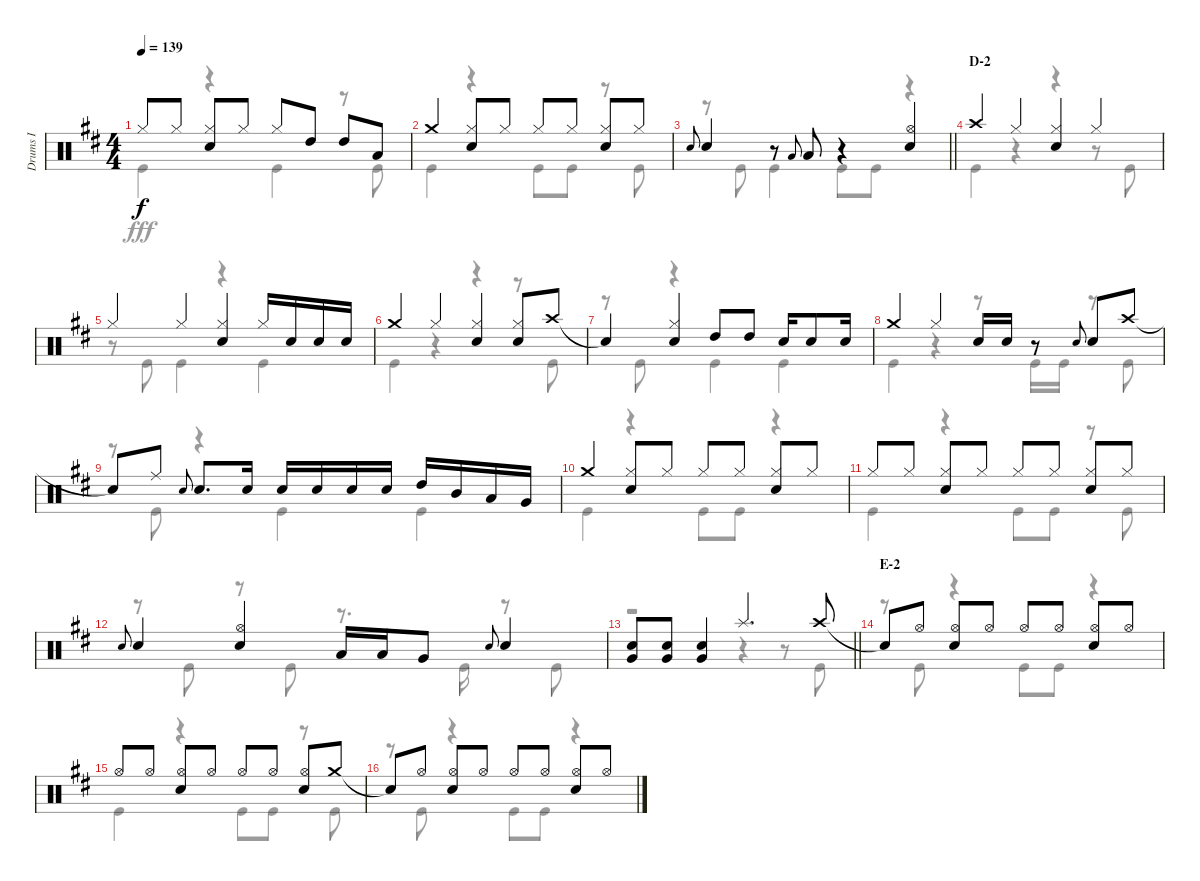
\track ("Drums I" "Drums I") {instrument percussion}
\staff {score}
\articulation defaults
\voice
\ts (4 4)
\tempo 139
\clef neutral
\ks d "Hi-Hat (closed)".8{dy f} "Hi-Hat (closed)".8
("Hi-Hat (closed)" "Snare (hit) 2").8 "Hi-Hat (closed)".8 "Hi-Hat (closed)".8 "High Tom (hit)".8 "High Tom (hit)".8 "Low Tom (hit)".8 |
"Crash medium (hit)".4 ("Hi-Hat (closed)" "Snare (hit) 2").8 "Hi-Hat (closed)".8 "Hi-Hat (closed)".8 "Hi-Hat (closed)".8 ("Hi-Hat (closed)" "Snare (hit) 2").8 "Hi-Hat (closed)".8 |
\barLineRight lightlight "Snare (hit) 2".8{gr onbeat} "Snare (hit) 2".4
r.8 "Low Tom (hit)".8{gr onbeat} "Low Tom (hit)".8 r.4 ("Hi-Hat (open)" "Snare (hit) 2").4 |
\section ("" "D-2")
"Crash high (hit)".4 "Hi-Hat (closed)".4 ("Hi-Hat (closed)" "Snare (hit) 2").4 "Hi-Hat (closed)".4 |
"Hi-Hat (closed)".4 "Hi-Hat (closed)".4 ("Hi-Hat (closed)" "Snare (hit) 2").4 "Hi-Hat (closed)".16 "Snare (hit) 2".16 "Snare (hit) 2".16 "Snare (hit) 2".16 |
"Crash medium (hit)".4 "Hi-Hat (closed)".4 ("Hi-Hat (closed)" "Snare (hit) 2").4 ("Hi-Hat (closed)" "Snare (hit) 2").8 "Crash high (hit)".8 |
"Snare (hit)"{t}.4 ("Hi-Hat (closed)" "Snare (hit) 2").4 "High Tom (hit)".8 "High Tom (hit)".8 "Snare (hit) 2".16 "Snare (hit) 2".8 "Snare (hit) 2".16 |
"Crash medium (hit)".4 "Hi-Hat (closed)".4 "Snare (hit) 2".16 "Snare (hit) 2".16 r.8 "Snare (hit) 2".8{gr onbeat} "Snare (hit) 2".8 "Crash high (hit)".8 |
"Snare (hit)"{t}.8 "Ride (middle)".8 "Snare (hit) 2".8{gr onbeat} "Snare (hit) 2".8{d} "Snare (hit) 2".16 "Snare (hit) 2".16 "Snare (hit) 2".16 "Snare (hit) 2".16 "Snare (hit) 2".16 "High Tom (hit)".16 "Mid Tom (hit)".16 "Low Tom (hit)".16 "Very Low Tom (hit)".16 |
"Crash medium (hit)".4 ("Hi-Hat (closed)" "Snare (hit) 2").8 "Hi-Hat (closed)".8 "Hi-Hat (closed)".8 "Hi-Hat (closed)".8 ("Hi-Hat (closed)" "Snare (hit) 2").8 "Hi-Hat (closed)".8 |
"Hi-Hat (closed)".8 "Hi-Hat (closed)".8 ("Hi-Hat (closed)" "Snare (hit) 2").8 "Hi-Hat (closed)".8 "Hi-Hat (closed)".8 "Hi-Hat (closed)".8 ("Hi-Hat (closed)" "Snare (hit) 2").8 "Hi-Hat (closed)".8 |
"Snare (hit) 2".8{gr onbeat} "Snare (hit) 2".4 ("Hi-Hat (open)" "Snare (hit) 2").4 "Low Tom (hit)".16 "Low Tom (hit)".16 "Very Low Tom (hit)".8 "Snare (hit) 2".8{gr onbeat} "Snare (hit) 2".4 |
\barLineRight lightlight
("Snare (hit) 2" "Very Low Tom (hit)").8 ("Snare (hit) 2" "Very Low Tom (hit)").8 ("Snare (hit) 2" "Very Low Tom (hit)").4 "Splash (hit)".4{d} "Crash high (hit)".8 |
\section ("" "E-2")
"Snare (hit)"{t}.8 "Hi-Hat (open)".8 ("Hi-Hat (open)" "Snare (hit) 2").8 "Hi-Hat (open)".8 "Hi-Hat (open)".8 "Hi-Hat (open)".8 ("Hi-Hat (open)" "Snare (hit) 2").8 "Hi-Hat (open)".8 |
"Hi-Hat (open)".8 "Hi-Hat (open)".8 ("Hi-Hat (open)" "Snare (hit) 2").8 "Hi-Hat (open)".8 "Hi-Hat (open)".8 "Hi-Hat (open)".8 ("Hi-Hat (open)" "Snare (hit) 2").8 "Crash medium (hit)".8 |
"Snare (hit)"{t}.8 "Hi-Hat (open)".8 ("Hi-Hat (open)" "Snare (hit) 2").8 "Hi-Hat (open)".8 "Hi-Hat (open)".8 "Hi-Hat (open)".8 ("Hi-Hat (open)" "Snare (hit) 2").8 "Hi-Hat (open)".8
\voice
\clef neutral
\ottava regular
\simile none
\ks d "Kick (hit)".4{dy fff}
r.4 "Kick (hit)".4 r.8 "Kick (hit)".8 |
"Kick (hit)".4 r.4 "Kick (hit)".8 "Kick (hit)".8 r.8 "Kick (hit)".8 |
\barLineRight lightlight
r.8 "Kick (hit)".8 "Kick (hit)".4 "Kick (hit)".8 "Kick (hit)".8 r.4 |
"Kick (hit)".4 r.4 r.4 r.8 "Kick (hit)".8 |
r.8 "Kick (hit)".8 "Kick (hit)".4 r.4 "Kick (hit)".4 |
"Kick (hit)".4 r.4 r.4 r.8 "Kick (hit)".8 |
r.8 "Kick (hit)".8 r.4 "Kick (hit)".4 "Kick (hit)".4 |
"Kick (hit)".4 r.4 r.8 "Kick (hit)".16 "Kick (hit)".16 r.8 "Kick (hit)".8 |
r.8 "Kick (hit)".8 r.4 "Kick (hit)".4 "Kick (hit)".4 |
"Kick (hit)".4 r.4 "Kick (hit)".8 "Kick (hit)".8 r.4 |
"Kick (hit)".4 r.4 "Kick (hit)".8 "Kick (hit)".8 r.8 "Kick (hit)".8 |
r.8 "Kick (hit)".8 r.8 "Kick (hit)".8 r.8{d} "Kick (hit)".16 r.8 "Kick (hit)".8 |
\barLineRight lightlight
r.2 r.4 r.8 "Kick (hit)".8 |
r.8 "Kick (hit)".8 r.4 "Kick (hit)".8 "Kick (hit)".8 r.4 |
"Kick (hit)".4 r.4 "Kick (hit)".8 "Kick (hit)".8 r.8 "Kick (hit)".8 |
r.8 "Kick (hit)".8 r.4 "Kick (hit)".8 "Kick (hit)".8 r.4
